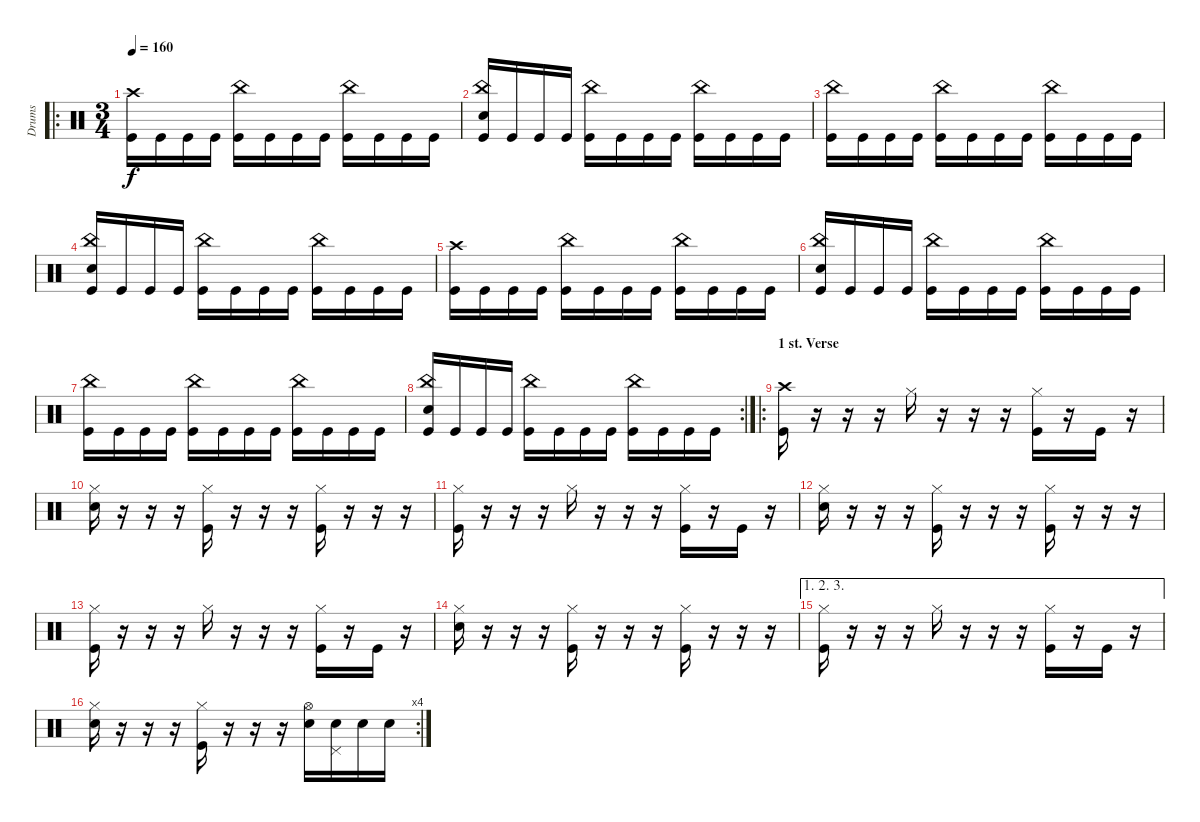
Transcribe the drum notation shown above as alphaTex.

\track ("Drums" "Drums") {instrument percussion}
\staff {score}
\articulation defaults
\ro
\ts (3 4)
\tempo 160
\clef neutral
\ks c
("Crash high (hit)" "Kick (hit)").16{dy f} "Kick (hit)".16 "Kick (hit)".16 "Kick (hit)".16 ("China (hit)" "Kick (hit)").16 "Kick (hit)".16 "Kick (hit)".16 "Kick (hit)".16 ("China (hit)" "Kick (hit)").16 "Kick (hit)".16 "Kick (hit)".16 "Kick (hit)".16 |
("China (hit)" "Snare (hit) 2" "Kick (hit)").16 "Kick (hit)".16 "Kick (hit)".16 "Kick (hit)".16 ("China (hit)" "Kick (hit)").16 "Kick (hit)".16 "Kick (hit)".16 "Kick (hit)".16 ("China (hit)" "Kick (hit)").16 "Kick (hit)".16 "Kick (hit)".16 "Kick (hit)".16 |
("China (hit)" "Kick (hit)").16 "Kick (hit)".16 "Kick (hit)".16 "Kick (hit)".16 ("China (hit)" "Kick (hit)").16 "Kick (hit)".16 "Kick (hit)".16 "Kick (hit)".16 ("China (hit)" "Kick (hit)").16 "Kick (hit)".16 "Kick (hit)".16 "Kick (hit)".16 |
("China (hit)" "Snare (hit) 2" "Kick (hit)").16 "Kick (hit)".16 "Kick (hit)".16 "Kick (hit)".16 ("China (hit)" "Kick (hit)").16 "Kick (hit)".16 "Kick (hit)".16 "Kick (hit)".16 ("China (hit)" "Kick (hit)").16 "Kick (hit)".16 "Kick (hit)".16 "Kick (hit)".16 |
("Crash high (hit)" "Kick (hit)").16 "Kick (hit)".16 "Kick (hit)".16 "Kick (hit)".16 ("China (hit)" "Kick (hit)").16 "Kick (hit)".16 "Kick (hit)".16 "Kick (hit)".16 ("China (hit)" "Kick (hit)").16 "Kick (hit)".16 "Kick (hit)".16 "Kick (hit)".16 |
("China (hit)" "Snare (hit) 2" "Kick (hit)").16 "Kick (hit)".16 "Kick (hit)".16 "Kick (hit)".16 ("China (hit)" "Kick (hit)").16 "Kick (hit)".16 "Kick (hit)".16 "Kick (hit)".16 ("China (hit)" "Kick (hit)").16 "Kick (hit)".16 "Kick (hit)".16 "Kick (hit)".16 |
("China (hit)" "Kick (hit)").16 "Kick (hit)".16 "Kick (hit)".16 "Kick (hit)".16 ("China (hit)" "Kick (hit)").16 "Kick (hit)".16 "Kick (hit)".16 "Kick (hit)".16 ("China (hit)" "Kick (hit)").16 "Kick (hit)".16 "Kick (hit)".16 "Kick (hit)".16 |
\rc 2
("China (hit)" "Snare (hit) 2" "Kick (hit)").16 "Kick (hit)".16 "Kick (hit)".16 "Kick (hit)".16 ("China (hit)" "Kick (hit)").16 "Kick (hit)".16 "Kick (hit)".16 "Kick (hit)".16 ("China (hit)" "Kick (hit)").16 "Kick (hit)".16 "Kick (hit)".16 "Kick (hit)".16 |
\ro
\section ("" "1 st. Verse")
("Crash high (hit)" "Kick (hit)").16 r.16 r.16 r.16 "Hi-Hat (closed)".16 r.16 r.16 r.16 ("Hi-Hat (closed)" "Kick (hit)").16 r.16 "Kick (hit)".16 r.16 |
("Hi-Hat (closed)" "Snare (hit) 2").16 r.16 r.16 r.16 ("Hi-Hat (closed)" "Kick (hit)").16 r.16 r.16 r.16 ("Hi-Hat (closed)" "Kick (hit)").16 r.16 r.16 r.16 |
("Hi-Hat (closed)" "Kick (hit)").16 r.16 r.16 r.16 "Hi-Hat (closed)".16 r.16 r.16 r.16 ("Hi-Hat (closed)" "Kick (hit)").16 r.16 "Kick (hit)".16 r.16 |
("Hi-Hat (closed)" "Snare (hit) 2").16 r.16 r.16 r.16 ("Hi-Hat (closed)" "Kick (hit)").16 r.16 r.16 r.16 ("Hi-Hat (closed)" "Kick (hit)").16 r.16 r.16 r.16 |
("Hi-Hat (closed)" "Kick (hit)").16 r.16 r.16 r.16 "Hi-Hat (closed)".16 r.16 r.16 r.16 ("Hi-Hat (closed)" "Kick (hit)").16 r.16 "Kick (hit)".16 r.16 |
("Hi-Hat (closed)" "Snare (hit) 2").16 r.16 r.16 r.16 ("Hi-Hat (closed)" "Kick (hit)").16 r.16 r.16 r.16 ("Hi-Hat (closed)" "Kick (hit)").16 r.16 r.16 r.16 |
\ae (1 2 3)
("Hi-Hat (closed)" "Kick (hit)").16 r.16 r.16 r.16 "Hi-Hat (closed)".16 r.16 r.16 r.16 ("Hi-Hat (closed)" "Kick (hit)").16 r.16 "Kick (hit)".16 r.16 |
\rc 4
("Hi-Hat (closed)" "Snare (hit) 2").16 r.16 r.16 r.16 ("Hi-Hat (closed)" "Kick (hit)").16 r.16 r.16 r.16 ("Hi-Hat (open)" "Snare (hit) 2").16 ("Pedal Hi-Hat (hit)" "Snare (hit) 2").16 "Snare (hit) 2".16 "Snare (hit) 2".16
